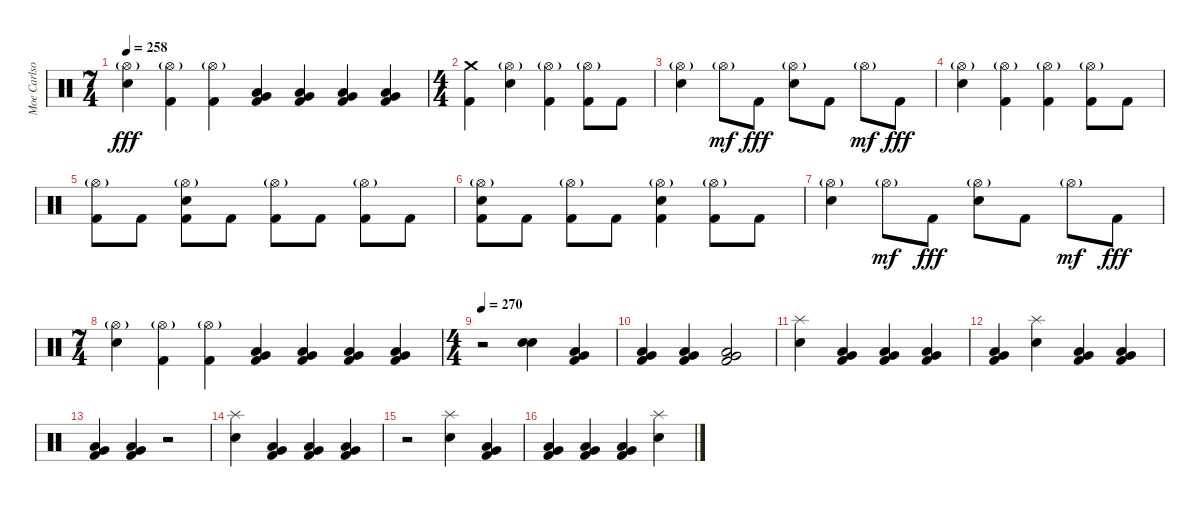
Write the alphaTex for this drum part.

\track ("Moe Carlson" "Moe Carlso") {instrument percussion}
\staff {score}
\articulation defaults
\ts (7 4)
\tempo 258
\clef neutral
\ks c
("Hi-Hat (open)"{g} "Electric Snare (hit)").4{dy fff} ("Hi-Hat (open)"{g} "Kick (hit) 2").4 ("Hi-Hat (open)"{g} "Kick (hit) 2").4 ("Very Low Tom (hit)" "Low Floor Tom (hit)" "Kick (hit) 2").4 ("Very Low Tom (hit)" "Low Floor Tom (hit)" "Kick (hit) 2").4 ("Very Low Tom (hit)" "Low Floor Tom (hit)" "Kick (hit) 2").4 ("Very Low Tom (hit)" "Low Floor Tom (hit)" "Kick (hit) 2").4 |
\ts (4 4)
("Crash medium (hit)" "Kick (hit) 2").4 ("Hi-Hat (open)"{g} "Electric Snare (hit)").4 ("Hi-Hat (open)"{g} "Kick (hit) 2").4 ("Hi-Hat (open)"{g} "Kick (hit) 2").8 "Kick (hit) 2".8 |
("Hi-Hat (open)"{g} "Electric Snare (hit)").4 "Hi-Hat (open)"{g}.8{dy mf} "Kick (hit) 2".8{dy fff} ("Hi-Hat (open)"{g} "Electric Snare (hit)").8 "Kick (hit) 2".8 "Hi-Hat (open)"{g}.8{dy mf} "Kick (hit) 2".8{dy fff} |
("Hi-Hat (open)"{g} "Electric Snare (hit)").4 ("Hi-Hat (open)"{g} "Kick (hit) 2").4 ("Hi-Hat (open)"{g} "Kick (hit) 2").4 ("Hi-Hat (open)"{g} "Kick (hit) 2").8 "Kick (hit) 2".8 |
("Hi-Hat (open)"{g} "Kick (hit) 2").8 "Kick (hit) 2".8 ("Hi-Hat (open)"{g} "Electric Snare (hit)" "Kick (hit) 2").8 "Kick (hit) 2".8 ("Hi-Hat (open)"{g} "Kick (hit) 2").8 "Kick (hit) 2".8 ("Hi-Hat (open)"{g} "Kick (hit) 2").8 "Kick (hit) 2".8 |
("Hi-Hat (open)"{g} "Electric Snare (hit)" "Kick (hit) 2").8 "Kick (hit) 2".8 ("Hi-Hat (open)"{g} "Kick (hit) 2").8 "Kick (hit) 2".8 ("Hi-Hat (open)"{g} "Electric Snare (hit)" "Kick (hit) 2").4 ("Hi-Hat (open)"{g} "Kick (hit) 2").8 "Kick (hit) 2".8 |
("Hi-Hat (open)"{g} "Electric Snare (hit)").4 "Hi-Hat (open)"{g}.8{dy mf} "Kick (hit) 2".8{dy fff} ("Hi-Hat (open)"{g} "Electric Snare (hit)").8 "Kick (hit) 2".8 "Hi-Hat (open)"{g}.8{dy mf} "Kick (hit) 2".8{dy fff} |
\ts (7 4)
("Hi-Hat (open)"{g} "Electric Snare (hit)").4 ("Hi-Hat (open)"{g} "Kick (hit) 2").4 ("Hi-Hat (open)"{g} "Kick (hit) 2").4 ("Very Low Tom (hit)" "Low Floor Tom (hit)" "Kick (hit) 2").4 ("Very Low Tom (hit)" "Low Floor Tom (hit)" "Kick (hit) 2").4 ("Very Low Tom (hit)" "Low Floor Tom (hit)" "Kick (hit) 2").4 ("Very Low Tom (hit)" "Low Floor Tom (hit)" "Kick (hit) 2").4 |
\ts (4 4)
\tempo 270
r.2 ("Electric Snare (hit)" "Electric Snare (hit)").4 ("Very Low Tom (hit)" "Low Floor Tom (hit)" "Kick (hit) 2").4 |
("Very Low Tom (hit)" "Low Floor Tom (hit)" "Kick (hit) 2").4 ("Very Low Tom (hit)" "Low Floor Tom (hit)" "Kick (hit) 2").4 ("Very Low Tom (hit)" "Low Floor Tom (hit)" "Kick (hit) 2").2 |
("Splash (hit)" "Electric Snare (hit)").4 ("Very Low Tom (hit)" "Low Floor Tom (hit)" "Kick (hit) 2").4 ("Very Low Tom (hit)" "Low Floor Tom (hit)" "Kick (hit) 2").4 ("Very Low Tom (hit)" "Low Floor Tom (hit)" "Kick (hit) 2").4 |
("Very Low Tom (hit)" "Low Floor Tom (hit)" "Kick (hit) 2").4 ("Splash (hit)" "Electric Snare (hit)").4 ("Very Low Tom (hit)" "Low Floor Tom (hit)" "Kick (hit) 2").4 ("Very Low Tom (hit)" "Low Floor Tom (hit)" "Kick (hit) 2").4 |
("Very Low Tom (hit)" "Low Floor Tom (hit)" "Kick (hit) 2").4 ("Very Low Tom (hit)" "Low Floor Tom (hit)" "Kick (hit) 2").4 r.2 |
("Splash (hit)" "Electric Snare (hit)").4 ("Very Low Tom (hit)" "Low Floor Tom (hit)" "Kick (hit) 2").4 ("Very Low Tom (hit)" "Low Floor Tom (hit)" "Kick (hit) 2").4 ("Very Low Tom (hit)" "Low Floor Tom (hit)" "Kick (hit) 2").4 |
r.2 ("Splash (hit)" "Electric Snare (hit)").4 ("Very Low Tom (hit)" "Low Floor Tom (hit)" "Kick (hit) 2").4 |
("Very Low Tom (hit)" "Low Floor Tom (hit)" "Kick (hit) 2").4 ("Very Low Tom (hit)" "Low Floor Tom (hit)" "Kick (hit) 2").4 ("Very Low Tom (hit)" "Low Floor Tom (hit)" "Kick (hit) 2").4 ("Splash (hit)" "Electric Snare (hit)").4
